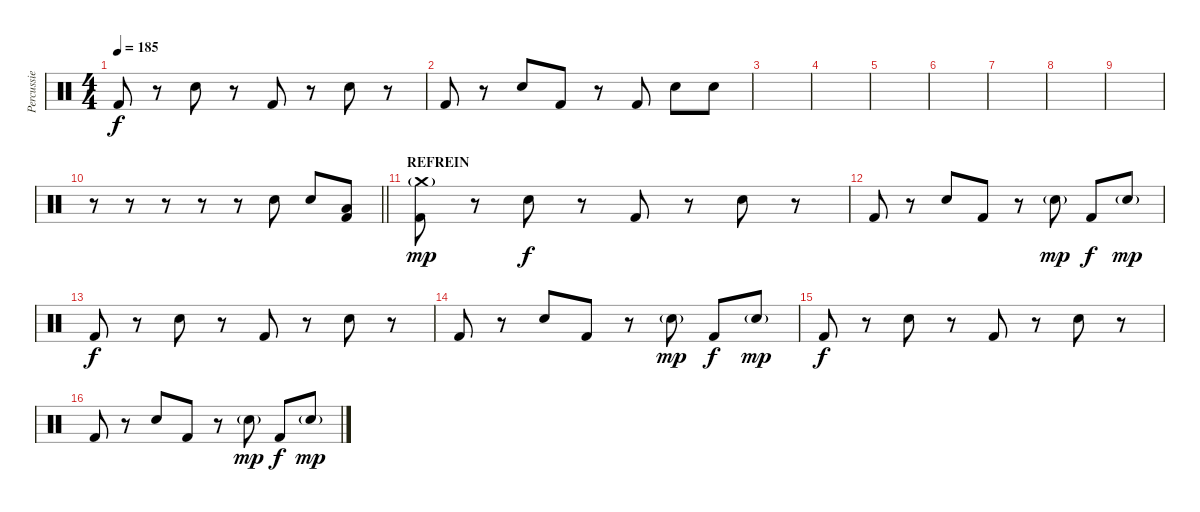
\track ("Percussie" "Percussie") {instrument percussion}
\staff {score}
\articulation defaults
\ts (4 4)
\tempo 185
\clef neutral
\ks c "Kick (hit) 2".8{dy f}
r.8 "Snare (hit) 2".8 r.8 "Kick (hit) 2".8 r.8 "Snare (hit) 2".8 r.8 |
"Kick (hit) 2".8 r.8 "Snare (hit) 2".8 "Kick (hit) 2".8 r.8 "Kick (hit) 2".8 "Snare (hit) 2".8 "Snare (hit) 2".8 |
|
|
|
|
|
|
|
\barLineRight lightlight
r.8 r.8 r.8 r.8 r.8 "Snare (hit) 2".8 "Snare (hit) 2".8 ("Low Floor Tom (hit)" "Kick (hit) 2").8 |
\section ("" "REFREIN")
("Crash medium (hit)"{g} "Kick (hit) 2").8{dy mp} r.8 "Snare (hit) 2".8{dy f} r.8 "Kick (hit) 2".8 r.8 "Snare (hit) 2".8 r.8 |
"Kick (hit) 2".8 r.8 "Snare (hit) 2".8 "Kick (hit) 2".8 r.8 "Snare (hit) 2"{g}.8{dy mp} "Kick (hit) 2".8{dy f} "Snare (hit) 2"{g}.8{dy mp} |
"Kick (hit) 2".8{dy f} r.8 "Snare (hit) 2".8 r.8 "Kick (hit) 2".8 r.8 "Snare (hit) 2".8 r.8 |
"Kick (hit) 2".8 r.8 "Snare (hit) 2".8 "Kick (hit) 2".8 r.8 "Snare (hit) 2"{g}.8{dy mp} "Kick (hit) 2".8{dy f} "Snare (hit) 2"{g}.8{dy mp} |
"Kick (hit) 2".8{dy f} r.8 "Snare (hit) 2".8 r.8 "Kick (hit) 2".8 r.8 "Snare (hit) 2".8 r.8 |
"Kick (hit) 2".8 r.8 "Snare (hit) 2".8 "Kick (hit) 2".8 r.8 "Snare (hit) 2"{g}.8{dy mp} "Kick (hit) 2".8{dy f} "Snare (hit) 2"{g}.8{dy mp}
